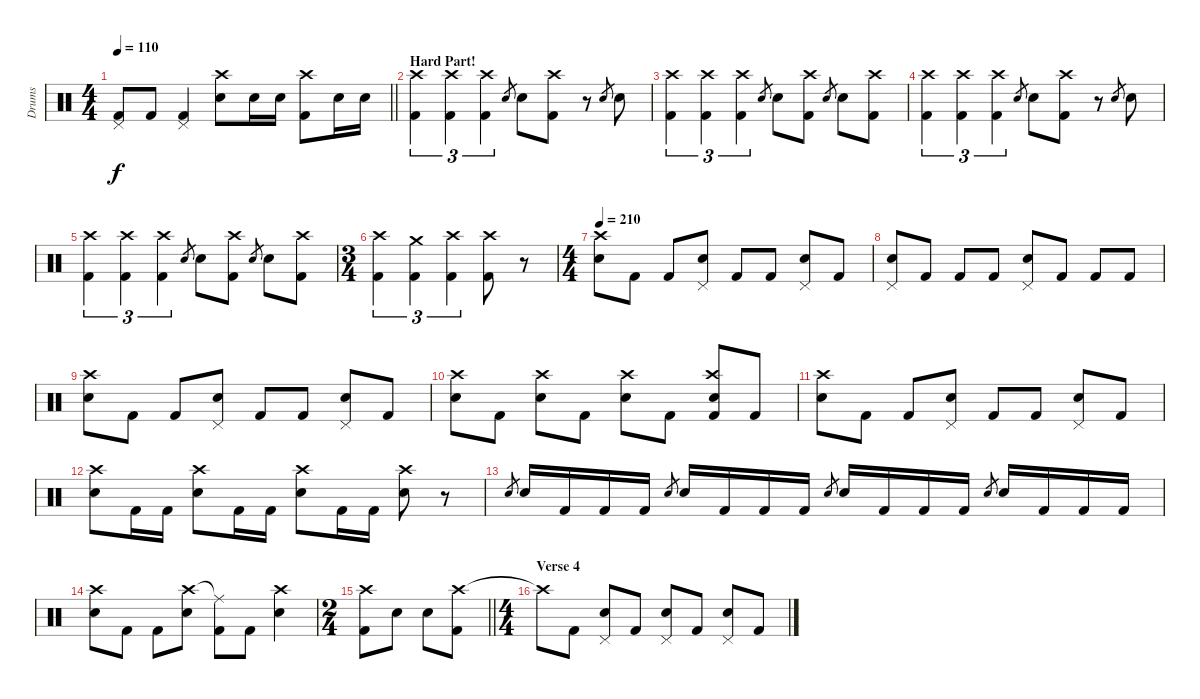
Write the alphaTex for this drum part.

\track ("Drums" "Drums") {instrument percussion}
\staff {score}
\articulation defaults
\ts (4 4)
\tempo 110
\clef neutral
\barLineRight lightlight
\ks c
("Pedal Hi-Hat (hit)" "Kick (hit) 2").8{dy f} "Kick (hit) 2".8 ("Pedal Hi-Hat (hit)" "Kick (hit) 2").4 ("Crash high (hit)" "Electric Snare (hit)").8 "Electric Snare (hit)".16 "Electric Snare (hit)".16 ("Crash high (hit)" "Kick (hit) 2").8 "Electric Snare (hit)".16 "Electric Snare (hit)".16 |
\section ("" "Hard Part!")
("Crash high (hit)" "Kick (hit) 2").4{tu (3 2)} ("Crash high (hit)" "Kick (hit) 2").4{tu (3 2)} ("Crash high (hit)" "Kick (hit) 2").4{tu (3 2)} "Electric Snare (hit)".8{gr} "Electric Snare (hit)".8 ("Crash high (hit)" "Kick (hit) 2").8 r.8 "Electric Snare (hit)".8{gr} "Electric Snare (hit)".8 |
("Crash high (hit)" "Kick (hit) 2").4{tu (3 2)} ("Crash high (hit)" "Kick (hit) 2").4{tu (3 2)} ("Crash high (hit)" "Kick (hit) 2").4{tu (3 2)} "Electric Snare (hit)".8{gr} "Electric Snare (hit)".8 ("Crash high (hit)" "Kick (hit) 2").8 "Electric Snare (hit)".8{gr} "Electric Snare (hit)".8 ("Crash high (hit)" "Kick (hit) 2").8 |
("Crash high (hit)" "Kick (hit) 2").4{tu (3 2)} ("Crash high (hit)" "Kick (hit) 2").4{tu (3 2)} ("Crash high (hit)" "Kick (hit) 2").4{tu (3 2)} "Electric Snare (hit)".8{gr} "Electric Snare (hit)".8 ("Crash high (hit)" "Kick (hit) 2").8 r.8 "Electric Snare (hit)".8{gr} "Electric Snare (hit)".8 |
("Crash high (hit)" "Kick (hit) 2").4{tu (3 2)} ("Crash high (hit)" "Kick (hit) 2").4{tu (3 2)} ("Crash high (hit)" "Kick (hit) 2").4{tu (3 2)} "Electric Snare (hit)".8{gr} "Electric Snare (hit)".8 ("Crash high (hit)" "Kick (hit) 2").8 "Electric Snare (hit)".8{gr} "Electric Snare (hit)".8 ("Crash high (hit)" "Kick (hit) 2").8 |
\ts (3 4)
("Crash high (hit)" "Kick (hit) 2").4{tu (3 2)} ("Crash medium (hit)" "Kick (hit) 2").4{tu (3 2)} ("Crash high (hit)" "Kick (hit) 2").4{tu (3 2)} ("Crash high (hit)" "Kick (hit) 2").8 r.8 |
\ts (4 4)
\tempo 210
("Crash high (hit)" "Electric Snare (hit)").8 "Kick (hit) 2".8 "Kick (hit) 2".8 ("Pedal Hi-Hat (hit)" "Electric Snare (hit)").8 "Kick (hit) 2".8 "Kick (hit) 2".8 ("Pedal Hi-Hat (hit)" "Electric Snare (hit)").8 "Kick (hit) 2".8 |
("Pedal Hi-Hat (hit)" "Electric Snare (hit)").8 "Kick (hit) 2".8 "Kick (hit) 2".8 "Kick (hit) 2".8 ("Pedal Hi-Hat (hit)" "Electric Snare (hit)").8 "Kick (hit) 2".8 "Kick (hit) 2".8 "Kick (hit) 2".8 |
("Crash high (hit)" "Electric Snare (hit)").8 "Kick (hit) 2".8 "Kick (hit) 2".8 ("Pedal Hi-Hat (hit)" "Electric Snare (hit)").8 "Kick (hit) 2".8 "Kick (hit) 2".8 ("Pedal Hi-Hat (hit)" "Electric Snare (hit)").8 "Kick (hit) 2".8 |
("Crash high (hit)" "Electric Snare (hit)").8 "Kick (hit) 2".8 ("Crash high (hit)" "Electric Snare (hit)").8 "Kick (hit) 2".8 ("Crash high (hit)" "Electric Snare (hit)").8 "Kick (hit) 2".8 ("Crash high (hit)" "Electric Snare (hit)" "Kick (hit) 2").8 "Kick (hit) 2".8 |
("Crash high (hit)" "Electric Snare (hit)").8 "Kick (hit) 2".8 "Kick (hit) 2".8 ("Pedal Hi-Hat (hit)" "Electric Snare (hit)").8 "Kick (hit) 2".8 "Kick (hit) 2".8 ("Pedal Hi-Hat (hit)" "Electric Snare (hit)").8 "Kick (hit) 2".8 |
("Crash high (hit)" "Electric Snare (hit)").8 "Kick (hit) 2".16 "Kick (hit) 2".16 ("Crash high (hit)" "Electric Snare (hit)").8 "Kick (hit) 2".16 "Kick (hit) 2".16 ("Crash high (hit)" "Electric Snare (hit)").8 "Kick (hit) 2".16 "Kick (hit) 2".16 ("Crash high (hit)" "Electric Snare (hit)").8 r.8 |
"Electric Snare (hit)".8{gr} "Electric Snare (hit)".16 "Kick (hit) 2".16 "Kick (hit) 2".16 "Kick (hit) 2".16 "Electric Snare (hit)".8{gr} "Electric Snare (hit)".16 "Kick (hit) 2".16 "Kick (hit) 2".16 "Kick (hit) 2".16 "Electric Snare (hit)".8{gr} "Electric Snare (hit)".16 "Kick (hit) 2".16 "Kick (hit) 2".16 "Kick (hit) 2".16 "Electric Snare (hit)".8{gr} "Electric Snare (hit)".16 "Kick (hit) 2".16 "Kick (hit) 2".16 "Kick (hit) 2".16 |
("Crash high (hit)" "Electric Snare (hit)").8 "Kick (hit) 2".8 "Kick (hit) 2".8 ("Crash high (hit)" "Electric Snare (hit)").8 ("Ride (middle)"{t} "Kick (hit) 2").8 "Kick (hit) 2".8 ("Crash high (hit)" "Electric Snare (hit)").4 |
\ts (2 4)
\barLineRight lightlight
("Crash high (hit)" "Kick (hit) 2").8 "Electric Snare (hit)".8 "Electric Snare (hit)".8 ("Crash high (hit)" "Kick (hit) 2").8 |
\ts (4 4)
\section ("" "Verse 4")
"Crash high (hit)"{t}.8 "Kick (hit) 2".8 ("Pedal Hi-Hat (hit)" "Electric Snare (hit)").8 "Kick (hit) 2".8 ("Pedal Hi-Hat (hit)" "Electric Snare (hit)").8 "Kick (hit) 2".8 ("Pedal Hi-Hat (hit)" "Electric Snare (hit)").8 "Kick (hit) 2".8
